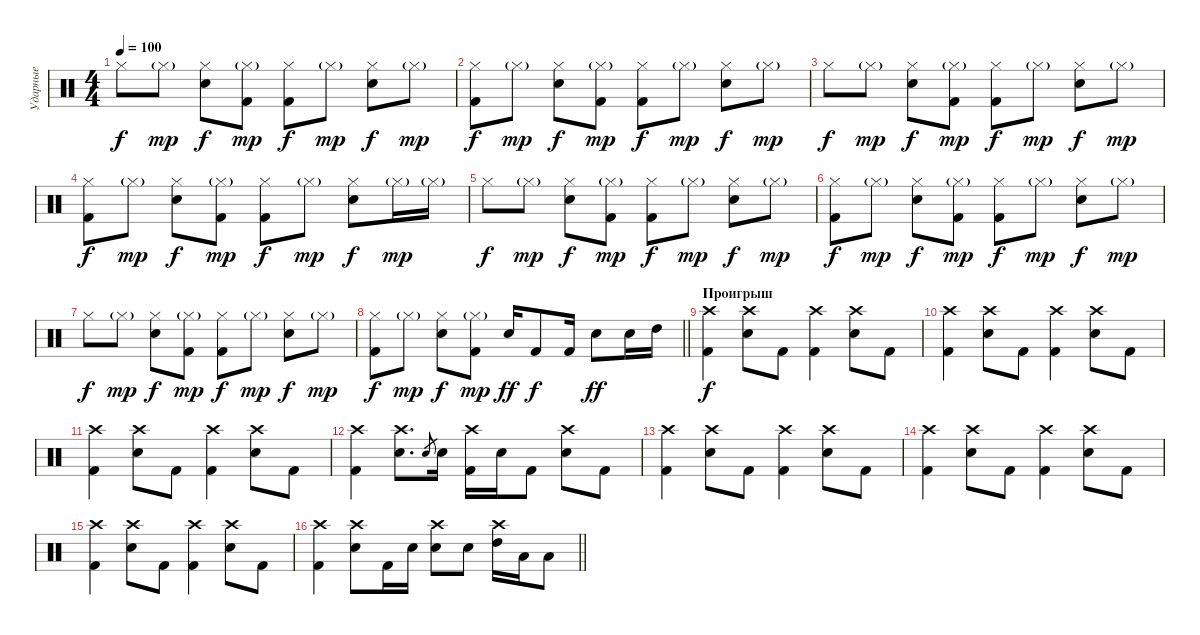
\track ("Ударные" "Ударные") {instrument percussion}
\staff {score}
\articulation defaults
\ts (4 4)
\tempo 100
\clef neutral
\ks c "Hi-Hat (closed)".8{dy f} "Hi-Hat (closed)"{g}.8{dy mp}
("Hi-Hat (closed)" "Electric Snare (hit)").8{dy f} ("Hi-Hat (closed)"{g} "Kick (hit) 2").8{dy mp} ("Hi-Hat (closed)" "Kick (hit) 2").8{dy f} "Hi-Hat (closed)"{g}.8{dy mp} ("Hi-Hat (closed)" "Electric Snare (hit)").8{dy f} "Hi-Hat (closed)"{g}.8{dy mp} |
("Hi-Hat (closed)" "Kick (hit) 2").8{dy f} "Hi-Hat (closed)"{g}.8{dy mp} ("Hi-Hat (closed)" "Electric Snare (hit)").8{dy f} ("Hi-Hat (closed)"{g} "Kick (hit) 2").8{dy mp} ("Hi-Hat (closed)" "Kick (hit) 2").8{dy f} "Hi-Hat (closed)"{g}.8{dy mp} ("Hi-Hat (closed)" "Electric Snare (hit)").8{dy f} "Hi-Hat (closed)"{g}.8{dy mp} |
"Hi-Hat (closed)".8{dy f} "Hi-Hat (closed)"{g}.8{dy mp} ("Hi-Hat (closed)" "Electric Snare (hit)").8{dy f} ("Hi-Hat (closed)"{g} "Kick (hit) 2").8{dy mp} ("Hi-Hat (closed)" "Kick (hit) 2").8{dy f} "Hi-Hat (closed)"{g}.8{dy mp} ("Hi-Hat (closed)" "Electric Snare (hit)").8{dy f} "Hi-Hat (closed)"{g}.8{dy mp} |
("Hi-Hat (closed)" "Kick (hit) 2").8{dy f} "Hi-Hat (closed)"{g}.8{dy mp} ("Hi-Hat (closed)" "Electric Snare (hit)").8{dy f} ("Hi-Hat (closed)"{g} "Kick (hit) 2").8{dy mp} ("Hi-Hat (closed)" "Kick (hit) 2").8{dy f} "Hi-Hat (closed)"{g}.8{dy mp} ("Hi-Hat (closed)" "Electric Snare (hit)").8{dy f} "Hi-Hat (closed)"{g}.16{dy mp} "Hi-Hat (closed)"{g}.16 |
"Hi-Hat (closed)".8{dy f} "Hi-Hat (closed)"{g}.8{dy mp} ("Hi-Hat (closed)" "Electric Snare (hit)").8{dy f} ("Hi-Hat (closed)"{g} "Kick (hit) 2").8{dy mp} ("Hi-Hat (closed)" "Kick (hit) 2").8{dy f} "Hi-Hat (closed)"{g}.8{dy mp} ("Hi-Hat (closed)" "Electric Snare (hit)").8{dy f} "Hi-Hat (closed)"{g}.8{dy mp} |
("Hi-Hat (closed)" "Kick (hit) 2").8{dy f} "Hi-Hat (closed)"{g}.8{dy mp} ("Hi-Hat (closed)" "Electric Snare (hit)").8{dy f} ("Hi-Hat (closed)"{g} "Kick (hit) 2").8{dy mp} ("Hi-Hat (closed)" "Kick (hit) 2").8{dy f} "Hi-Hat (closed)"{g}.8{dy mp} ("Hi-Hat (closed)" "Electric Snare (hit)").8{dy f} "Hi-Hat (closed)"{g}.8{dy mp} |
"Hi-Hat (closed)".8{dy f} "Hi-Hat (closed)"{g}.8{dy mp} ("Hi-Hat (closed)" "Electric Snare (hit)").8{dy f} ("Hi-Hat (closed)"{g} "Kick (hit) 2").8{dy mp} ("Hi-Hat (closed)" "Kick (hit) 2").8{dy f} "Hi-Hat (closed)"{g}.8{dy mp} ("Hi-Hat (closed)" "Electric Snare (hit)").8{dy f} "Hi-Hat (closed)"{g}.8{dy mp} |
\barLineRight lightlight
("Hi-Hat (closed)" "Kick (hit) 2").8{dy f} "Hi-Hat (closed)"{g}.8{dy mp} ("Hi-Hat (closed)" "Electric Snare (hit)").8{dy f} ("Hi-Hat (closed)"{g} "Kick (hit) 2").8{dy mp} "Electric Snare (hit)".16{dy ff} "Kick (hit) 2".8{dy f} "Kick (hit) 2".16 "Electric Snare (hit)".8{dy ff} "Electric Snare (hit)".16 "High Tom (hit)".16 |
\section ("" "Проигрыш")
("Crash high (hit)" "Kick (hit) 2").4{dy f} ("Crash high (hit)" "Electric Snare (hit)").8 "Kick (hit) 2".8 ("Crash high (hit)" "Kick (hit) 2").4 ("Crash high (hit)" "Electric Snare (hit)").8 "Kick (hit) 2".8 |
("Crash high (hit)" "Kick (hit) 2").4 ("Crash high (hit)" "Electric Snare (hit)").8 "Kick (hit) 2".8 ("Crash high (hit)" "Kick (hit) 2").4 ("Crash high (hit)" "Electric Snare (hit)").8 "Kick (hit) 2".8 |
("Crash high (hit)" "Kick (hit) 2").4 ("Crash high (hit)" "Electric Snare (hit)").8 "Kick (hit) 2".8 ("Crash high (hit)" "Kick (hit) 2").4 ("Crash high (hit)" "Electric Snare (hit)").8 "Kick (hit) 2".8 |
("Crash high (hit)" "Kick (hit) 2").4 ("Crash high (hit)" "Electric Snare (hit)").8{d} "Electric Snare (hit)".8{gr} "Electric Snare (hit)".16 ("Crash high (hit)" "Kick (hit) 2").16 "Electric Snare (hit)".16 "Kick (hit) 2".8 ("Crash high (hit)" "Electric Snare (hit)").8 "Kick (hit) 2".8 |
("Crash high (hit)" "Kick (hit) 2").4 ("Crash high (hit)" "Electric Snare (hit)").8 "Kick (hit) 2".8 ("Crash high (hit)" "Kick (hit) 2").4 ("Crash high (hit)" "Electric Snare (hit)").8 "Kick (hit) 2".8 |
("Crash high (hit)" "Kick (hit) 2").4 ("Crash high (hit)" "Electric Snare (hit)").8 "Kick (hit) 2".8 ("Crash high (hit)" "Kick (hit) 2").4 ("Crash high (hit)" "Electric Snare (hit)").8 "Kick (hit) 2".8 |
("Crash high (hit)" "Kick (hit) 2").4 ("Crash high (hit)" "Electric Snare (hit)").8 "Kick (hit) 2".8 ("Crash high (hit)" "Kick (hit) 2").4 ("Crash high (hit)" "Electric Snare (hit)").8 "Kick (hit) 2".8 |
\barLineRight lightlight
("Crash high (hit)" "Kick (hit) 2").4 ("Crash high (hit)" "Electric Snare (hit)").8 "Kick (hit) 2".16 "Electric Snare (hit)".16 ("Crash high (hit)" "Electric Snare (hit)").8 "Electric Snare (hit)".8 ("Crash high (hit)" "High Tom (hit)").16 "Low Tom (hit)".16 "Low Tom (hit)".8
